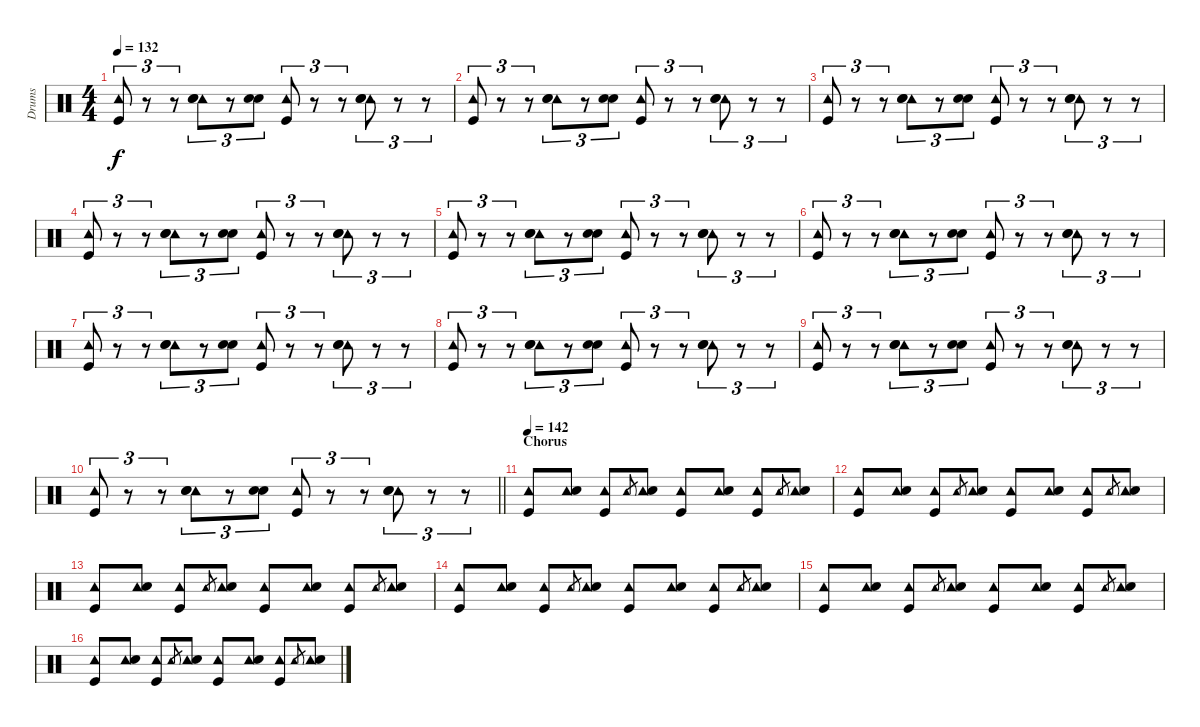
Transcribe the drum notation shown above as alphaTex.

\track ("Drums" "Drums") {instrument percussion}
\staff {score}
\articulation defaults
\ts (4 4)
\tempo 132
\clef neutral
\ks c
("Tambourine (hit)" "Kick (hit)").8{tu (3 2) dy f} r.8{tu (3 2)} r.8{tu (3 2)} ("Tambourine (hit)" "Hand Clap (hit)" "Snare (hit) 2").8{tu (3 2)} r.8{tu (3 2)} ("Hand Clap (hit)" "Snare (hit) 2").8{tu (3 2)} ("Tambourine (hit)" "Kick (hit)").8{tu (3 2)} r.8{tu (3 2)} r.8{tu (3 2)} ("Tambourine (hit)" "Hand Clap (hit)" "Snare (hit) 2").8{tu (3 2)} r.8{tu (3 2)} r.8{tu (3 2)} |
("Tambourine (hit)" "Kick (hit)").8{tu (3 2)} r.8{tu (3 2)} r.8{tu (3 2)} ("Tambourine (hit)" "Hand Clap (hit)" "Snare (hit) 2").8{tu (3 2)} r.8{tu (3 2)} ("Hand Clap (hit)" "Snare (hit) 2").8{tu (3 2)} ("Tambourine (hit)" "Kick (hit)").8{tu (3 2)} r.8{tu (3 2)} r.8{tu (3 2)} ("Tambourine (hit)" "Hand Clap (hit)" "Snare (hit) 2").8{tu (3 2)} r.8{tu (3 2)} r.8{tu (3 2)} |
("Tambourine (hit)" "Kick (hit)").8{tu (3 2)} r.8{tu (3 2)} r.8{tu (3 2)} ("Tambourine (hit)" "Hand Clap (hit)" "Snare (hit) 2").8{tu (3 2)} r.8{tu (3 2)} ("Hand Clap (hit)" "Snare (hit) 2").8{tu (3 2)} ("Tambourine (hit)" "Kick (hit)").8{tu (3 2)} r.8{tu (3 2)} r.8{tu (3 2)} ("Tambourine (hit)" "Hand Clap (hit)" "Snare (hit) 2").8{tu (3 2)} r.8{tu (3 2)} r.8{tu (3 2)} |
("Tambourine (hit)" "Kick (hit)").8{tu (3 2)} r.8{tu (3 2)} r.8{tu (3 2)} ("Tambourine (hit)" "Hand Clap (hit)" "Snare (hit) 2").8{tu (3 2)} r.8{tu (3 2)} ("Hand Clap (hit)" "Snare (hit) 2").8{tu (3 2)} ("Tambourine (hit)" "Kick (hit)").8{tu (3 2)} r.8{tu (3 2)} r.8{tu (3 2)} ("Tambourine (hit)" "Hand Clap (hit)" "Snare (hit) 2").8{tu (3 2)} r.8{tu (3 2)} r.8{tu (3 2)} |
("Tambourine (hit)" "Kick (hit)").8{tu (3 2)} r.8{tu (3 2)} r.8{tu (3 2)} ("Tambourine (hit)" "Hand Clap (hit)" "Snare (hit) 2").8{tu (3 2)} r.8{tu (3 2)} ("Hand Clap (hit)" "Snare (hit) 2").8{tu (3 2)} ("Tambourine (hit)" "Kick (hit)").8{tu (3 2)} r.8{tu (3 2)} r.8{tu (3 2)} ("Tambourine (hit)" "Hand Clap (hit)" "Snare (hit) 2").8{tu (3 2)} r.8{tu (3 2)} r.8{tu (3 2)} |
("Tambourine (hit)" "Kick (hit)").8{tu (3 2)} r.8{tu (3 2)} r.8{tu (3 2)} ("Tambourine (hit)" "Hand Clap (hit)" "Snare (hit) 2").8{tu (3 2)} r.8{tu (3 2)} ("Hand Clap (hit)" "Snare (hit) 2").8{tu (3 2)} ("Tambourine (hit)" "Kick (hit)").8{tu (3 2)} r.8{tu (3 2)} r.8{tu (3 2)} ("Tambourine (hit)" "Hand Clap (hit)" "Snare (hit) 2").8{tu (3 2)} r.8{tu (3 2)} r.8{tu (3 2)} |
("Tambourine (hit)" "Kick (hit)").8{tu (3 2)} r.8{tu (3 2)} r.8{tu (3 2)} ("Tambourine (hit)" "Hand Clap (hit)" "Snare (hit) 2").8{tu (3 2)} r.8{tu (3 2)} ("Hand Clap (hit)" "Snare (hit) 2").8{tu (3 2)} ("Tambourine (hit)" "Kick (hit)").8{tu (3 2)} r.8{tu (3 2)} r.8{tu (3 2)} ("Tambourine (hit)" "Hand Clap (hit)" "Snare (hit) 2").8{tu (3 2)} r.8{tu (3 2)} r.8{tu (3 2)} |
("Tambourine (hit)" "Kick (hit)").8{tu (3 2)} r.8{tu (3 2)} r.8{tu (3 2)} ("Tambourine (hit)" "Hand Clap (hit)" "Snare (hit) 2").8{tu (3 2)} r.8{tu (3 2)} ("Hand Clap (hit)" "Snare (hit) 2").8{tu (3 2)} ("Tambourine (hit)" "Kick (hit)").8{tu (3 2)} r.8{tu (3 2)} r.8{tu (3 2)} ("Tambourine (hit)" "Hand Clap (hit)" "Snare (hit) 2").8{tu (3 2)} r.8{tu (3 2)} r.8{tu (3 2)} |
("Tambourine (hit)" "Kick (hit)").8{tu (3 2)} r.8{tu (3 2)} r.8{tu (3 2)} ("Tambourine (hit)" "Hand Clap (hit)" "Snare (hit) 2").8{tu (3 2)} r.8{tu (3 2)} ("Hand Clap (hit)" "Snare (hit) 2").8{tu (3 2)} ("Tambourine (hit)" "Kick (hit)").8{tu (3 2)} r.8{tu (3 2)} r.8{tu (3 2)} ("Tambourine (hit)" "Hand Clap (hit)" "Snare (hit) 2").8{tu (3 2)} r.8{tu (3 2)} r.8{tu (3 2)} |
\barLineRight lightlight
("Tambourine (hit)" "Kick (hit)").8{tu (3 2)} r.8{tu (3 2)} r.8{tu (3 2)} ("Tambourine (hit)" "Hand Clap (hit)" "Snare (hit) 2").8{tu (3 2)} r.8{tu (3 2)} ("Hand Clap (hit)" "Snare (hit) 2").8{tu (3 2)} ("Tambourine (hit)" "Kick (hit)").8{tu (3 2)} r.8{tu (3 2)} r.8{tu (3 2)} ("Tambourine (hit)" "Hand Clap (hit)" "Snare (hit) 2").8{tu (3 2)} r.8{tu (3 2)} r.8{tu (3 2)} |
\section ("" "Chorus")
\tempo 142
("Tambourine (hit)" "Kick (hit)").8 ("Tambourine (hit)" "Snare (hit) 2").8 ("Tambourine (hit)" "Kick (hit)").8 "Tambourine (hit)".8{gr} ("Tambourine (hit)" "Snare (hit) 2").8 ("Tambourine (hit)" "Kick (hit)").8 ("Tambourine (hit)" "Snare (hit) 2").8 ("Tambourine (hit)" "Kick (hit)").8 "Tambourine (hit)".8{gr} ("Tambourine (hit)" "Snare (hit) 2").8 |
("Tambourine (hit)" "Kick (hit)").8 ("Tambourine (hit)" "Snare (hit) 2").8 ("Tambourine (hit)" "Kick (hit)").8 "Tambourine (hit)".8{gr} ("Tambourine (hit)" "Snare (hit) 2").8 ("Tambourine (hit)" "Kick (hit)").8 ("Tambourine (hit)" "Snare (hit) 2").8 ("Tambourine (hit)" "Kick (hit)").8 "Tambourine (hit)".8{gr} ("Tambourine (hit)" "Snare (hit) 2").8 |
("Tambourine (hit)" "Kick (hit)").8 ("Tambourine (hit)" "Snare (hit) 2").8 ("Tambourine (hit)" "Kick (hit)").8 "Tambourine (hit)".8{gr} ("Tambourine (hit)" "Snare (hit) 2").8 ("Tambourine (hit)" "Kick (hit)").8 ("Tambourine (hit)" "Snare (hit) 2").8 ("Tambourine (hit)" "Kick (hit)").8 "Tambourine (hit)".8{gr} ("Tambourine (hit)" "Snare (hit) 2").8 |
("Tambourine (hit)" "Kick (hit)").8 ("Tambourine (hit)" "Snare (hit) 2").8 ("Tambourine (hit)" "Kick (hit)").8 "Tambourine (hit)".8{gr} ("Tambourine (hit)" "Snare (hit) 2").8 ("Tambourine (hit)" "Kick (hit)").8 ("Tambourine (hit)" "Snare (hit) 2").8 ("Tambourine (hit)" "Kick (hit)").8 "Tambourine (hit)".8{gr} ("Tambourine (hit)" "Snare (hit) 2").8 |
("Tambourine (hit)" "Kick (hit)").8 ("Tambourine (hit)" "Snare (hit) 2").8 ("Tambourine (hit)" "Kick (hit)").8 "Tambourine (hit)".8{gr} ("Tambourine (hit)" "Snare (hit) 2").8 ("Tambourine (hit)" "Kick (hit)").8 ("Tambourine (hit)" "Snare (hit) 2").8 ("Tambourine (hit)" "Kick (hit)").8 "Tambourine (hit)".8{gr} ("Tambourine (hit)" "Snare (hit) 2").8 |
("Tambourine (hit)" "Kick (hit)").8 ("Tambourine (hit)" "Snare (hit) 2").8 ("Tambourine (hit)" "Kick (hit)").8 "Tambourine (hit)".8{gr} ("Tambourine (hit)" "Snare (hit) 2").8 ("Tambourine (hit)" "Kick (hit)").8 ("Tambourine (hit)" "Snare (hit) 2").8 ("Tambourine (hit)" "Kick (hit)").8 "Tambourine (hit)".8{gr} ("Tambourine (hit)" "Snare (hit) 2").8
